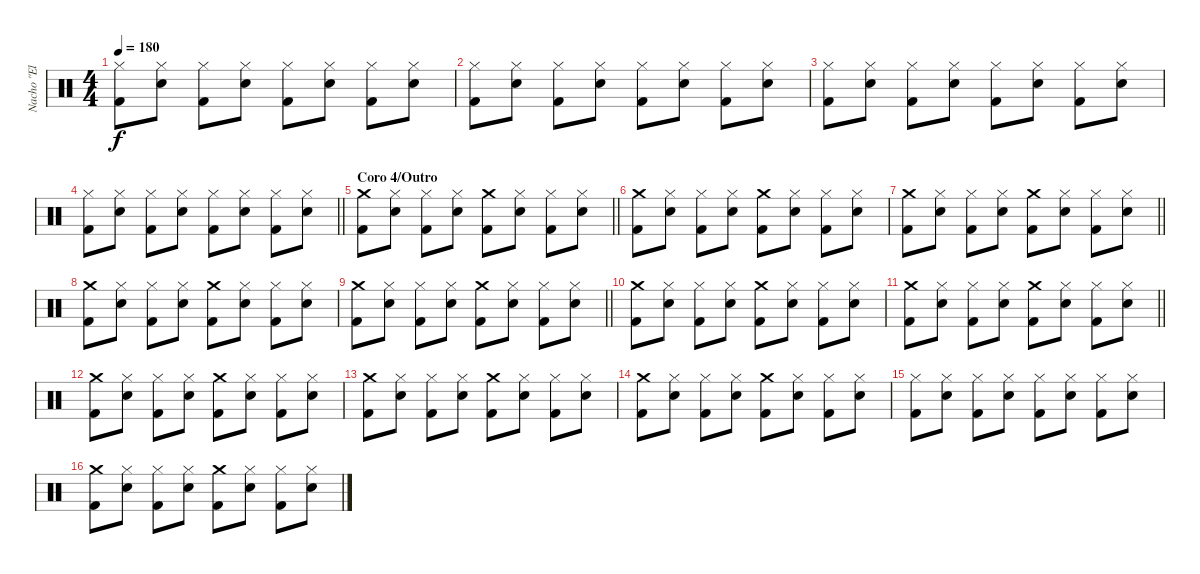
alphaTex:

\track ("Nacho \"El Implacable\"Gonzales" "Nacho \"El ") {instrument percussion}
\staff {score}
\articulation defaults
\ts (4 4)
\tempo 180
\clef neutral
\ks c
("Hi-Hat (closed)" "Kick (hit) 2").8{dy f} ("Hi-Hat (closed)" "Electric Snare (hit)").8 ("Hi-Hat (closed)" "Kick (hit) 2").8 ("Hi-Hat (closed)" "Electric Snare (hit)").8 ("Hi-Hat (closed)" "Kick (hit) 2").8 ("Hi-Hat (closed)" "Electric Snare (hit)").8 ("Hi-Hat (closed)" "Kick (hit) 2").8 ("Hi-Hat (closed)" "Electric Snare (hit)").8 |
("Hi-Hat (closed)" "Kick (hit) 2").8 ("Hi-Hat (closed)" "Electric Snare (hit)").8 ("Hi-Hat (closed)" "Kick (hit) 2").8 ("Hi-Hat (closed)" "Electric Snare (hit)").8 ("Hi-Hat (closed)" "Kick (hit) 2").8 ("Hi-Hat (closed)" "Electric Snare (hit)").8 ("Hi-Hat (closed)" "Kick (hit) 2").8 ("Hi-Hat (closed)" "Electric Snare (hit)").8 |
("Hi-Hat (closed)" "Kick (hit) 2").8 ("Hi-Hat (closed)" "Electric Snare (hit)").8 ("Hi-Hat (closed)" "Kick (hit) 2").8 ("Hi-Hat (closed)" "Electric Snare (hit)").8 ("Hi-Hat (closed)" "Kick (hit) 2").8 ("Hi-Hat (closed)" "Electric Snare (hit)").8 ("Hi-Hat (closed)" "Kick (hit) 2").8 ("Hi-Hat (closed)" "Electric Snare (hit)").8 |
\barLineRight lightlight
("Hi-Hat (closed)" "Kick (hit) 2").8 ("Hi-Hat (closed)" "Electric Snare (hit)").8 ("Hi-Hat (closed)" "Kick (hit) 2").8 ("Hi-Hat (closed)" "Electric Snare (hit)").8 ("Hi-Hat (closed)" "Kick (hit) 2").8 ("Hi-Hat (closed)" "Electric Snare (hit)").8 ("Hi-Hat (closed)" "Kick (hit) 2").8 ("Hi-Hat (closed)" "Electric Snare (hit)").8 |
\section ("" "Coro 4/Outro")
\barLineRight lightlight
("Crash medium (hit)" "Kick (hit) 2").8 ("Hi-Hat (closed)" "Electric Snare (hit)").8 ("Hi-Hat (closed)" "Kick (hit) 2").8 ("Hi-Hat (closed)" "Electric Snare (hit)").8 ("Crash medium (hit)" "Kick (hit) 2").8 ("Hi-Hat (closed)" "Electric Snare (hit)").8 ("Hi-Hat (closed)" "Kick (hit) 2").8 ("Hi-Hat (closed)" "Electric Snare (hit)").8 |
("Crash medium (hit)" "Kick (hit) 2").8 ("Hi-Hat (closed)" "Electric Snare (hit)").8 ("Hi-Hat (closed)" "Kick (hit) 2").8 ("Hi-Hat (closed)" "Electric Snare (hit)").8 ("Crash medium (hit)" "Kick (hit) 2").8 ("Hi-Hat (closed)" "Electric Snare (hit)").8 ("Hi-Hat (closed)" "Kick (hit) 2").8 ("Hi-Hat (closed)" "Electric Snare (hit)").8 |
\barLineRight lightlight
("Crash medium (hit)" "Kick (hit) 2").8 ("Hi-Hat (closed)" "Electric Snare (hit)").8 ("Hi-Hat (closed)" "Kick (hit) 2").8 ("Hi-Hat (closed)" "Electric Snare (hit)").8 ("Crash medium (hit)" "Kick (hit) 2").8 ("Hi-Hat (closed)" "Electric Snare (hit)").8 ("Hi-Hat (closed)" "Kick (hit) 2").8 ("Hi-Hat (closed)" "Electric Snare (hit)").8 |
("Crash medium (hit)" "Kick (hit) 2").8 ("Hi-Hat (closed)" "Electric Snare (hit)").8 ("Hi-Hat (closed)" "Kick (hit) 2").8 ("Hi-Hat (closed)" "Electric Snare (hit)").8 ("Crash medium (hit)" "Kick (hit) 2").8 ("Hi-Hat (closed)" "Electric Snare (hit)").8 ("Hi-Hat (closed)" "Kick (hit) 2").8 ("Hi-Hat (closed)" "Electric Snare (hit)").8 |
\barLineRight lightlight
("Crash medium (hit)" "Kick (hit) 2").8 ("Hi-Hat (closed)" "Electric Snare (hit)").8 ("Hi-Hat (closed)" "Kick (hit) 2").8 ("Hi-Hat (closed)" "Electric Snare (hit)").8 ("Crash medium (hit)" "Kick (hit) 2").8 ("Hi-Hat (closed)" "Electric Snare (hit)").8 ("Hi-Hat (closed)" "Kick (hit) 2").8 ("Hi-Hat (closed)" "Electric Snare (hit)").8 |
("Crash medium (hit)" "Kick (hit) 2").8 ("Hi-Hat (closed)" "Electric Snare (hit)").8 ("Hi-Hat (closed)" "Kick (hit) 2").8 ("Hi-Hat (closed)" "Electric Snare (hit)").8 ("Crash medium (hit)" "Kick (hit) 2").8 ("Hi-Hat (closed)" "Electric Snare (hit)").8 ("Hi-Hat (closed)" "Kick (hit) 2").8 ("Hi-Hat (closed)" "Electric Snare (hit)").8 |
\barLineRight lightlight
("Crash medium (hit)" "Kick (hit) 2").8 ("Hi-Hat (closed)" "Electric Snare (hit)").8 ("Hi-Hat (closed)" "Kick (hit) 2").8 ("Hi-Hat (closed)" "Electric Snare (hit)").8 ("Crash medium (hit)" "Kick (hit) 2").8 ("Hi-Hat (closed)" "Electric Snare (hit)").8 ("Hi-Hat (closed)" "Kick (hit) 2").8 ("Hi-Hat (closed)" "Electric Snare (hit)").8 |
("Crash medium (hit)" "Kick (hit) 2").8 ("Hi-Hat (closed)" "Electric Snare (hit)").8 ("Hi-Hat (closed)" "Kick (hit) 2").8 ("Hi-Hat (closed)" "Electric Snare (hit)").8 ("Crash medium (hit)" "Kick (hit) 2").8 ("Hi-Hat (closed)" "Electric Snare (hit)").8 ("Hi-Hat (closed)" "Kick (hit) 2").8 ("Hi-Hat (closed)" "Electric Snare (hit)").8 |
("Crash medium (hit)" "Kick (hit) 2").8 ("Hi-Hat (closed)" "Electric Snare (hit)").8 ("Hi-Hat (closed)" "Kick (hit) 2").8 ("Hi-Hat (closed)" "Electric Snare (hit)").8 ("Crash medium (hit)" "Kick (hit) 2").8 ("Hi-Hat (closed)" "Electric Snare (hit)").8 ("Hi-Hat (closed)" "Kick (hit) 2").8 ("Hi-Hat (closed)" "Electric Snare (hit)").8 |
("Crash medium (hit)" "Kick (hit) 2").8 ("Hi-Hat (closed)" "Electric Snare (hit)").8 ("Hi-Hat (closed)" "Kick (hit) 2").8 ("Hi-Hat (closed)" "Electric Snare (hit)").8 ("Crash medium (hit)" "Kick (hit) 2").8 ("Hi-Hat (closed)" "Electric Snare (hit)").8 ("Hi-Hat (closed)" "Kick (hit) 2").8 ("Hi-Hat (closed)" "Electric Snare (hit)").8 |
("Hi-Hat (closed)" "Kick (hit) 2").8 ("Hi-Hat (closed)" "Electric Snare (hit)").8 ("Hi-Hat (closed)" "Kick (hit) 2").8 ("Hi-Hat (closed)" "Electric Snare (hit)").8 ("Hi-Hat (closed)" "Kick (hit) 2").8 ("Hi-Hat (closed)" "Electric Snare (hit)").8 ("Hi-Hat (closed)" "Kick (hit) 2").8 ("Hi-Hat (closed)" "Electric Snare (hit)").8 |
("Crash medium (hit)" "Kick (hit) 2").8 ("Hi-Hat (closed)" "Electric Snare (hit)").8 ("Hi-Hat (closed)" "Kick (hit) 2").8 ("Hi-Hat (closed)" "Electric Snare (hit)").8 ("Crash medium (hit)" "Kick (hit) 2").8 ("Hi-Hat (closed)" "Electric Snare (hit)").8 ("Hi-Hat (closed)" "Kick (hit) 2").8 ("Hi-Hat (closed)" "Electric Snare (hit)").8
